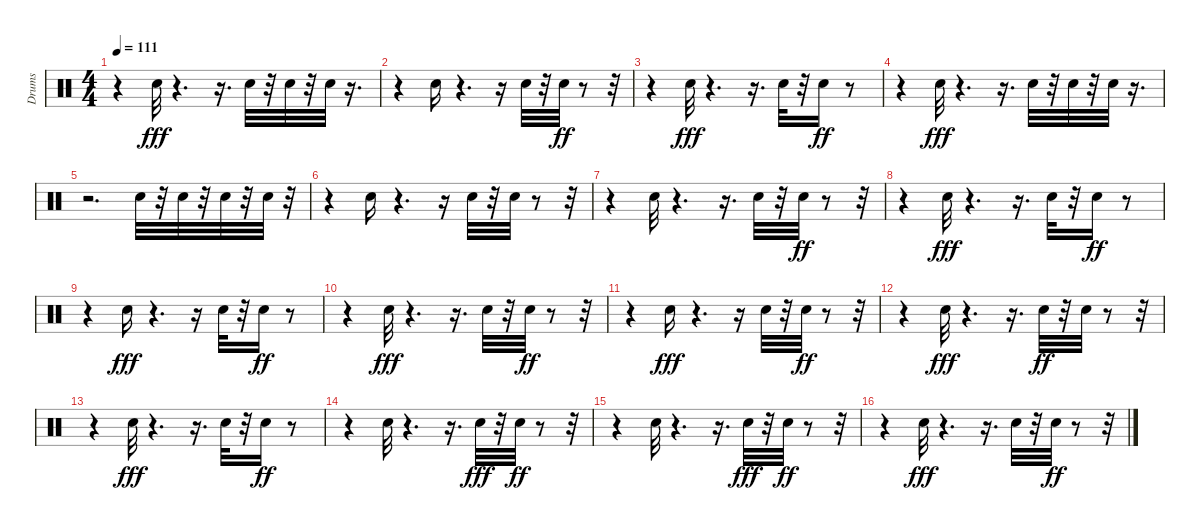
\track ("Drums" "Drums") {instrument percussion}
\staff {score}
\articulation defaults
\ts (4 4)
\tempo 111
\clef neutral
\ks c
r.4{dy ff} "Electric Snare (hit)".32{dy fff} r.4{d} r.16{d} "Electric Snare (hit)".32 r.32 "Electric Snare (hit)".32 r.32 "Electric Snare (hit)".32 r.16{d} |
r.4 "Electric Snare (hit)".16 r.4{d} r.16 "Electric Snare (hit)".32 r.32 "Electric Snare (hit)".32{dy ff} r.8 r.32 |
r.4 "Electric Snare (hit)".32{dy fff} r.4{d} r.16{d} "Electric Snare (hit)".32 r.32 "Electric Snare (hit)".16{dy ff} r.8 |
r.4 "Electric Snare (hit)".32{dy fff} r.4{d} r.16{d} "Electric Snare (hit)".32 r.32 "Electric Snare (hit)".32 r.32 "Electric Snare (hit)".32 r.16{d} |
r.2{d} "Electric Snare (hit)".32 r.32 "Electric Snare (hit)".32 r.32 "Electric Snare (hit)".32 r.32 "Electric Snare (hit)".32 r.32 |
r.4 "Electric Snare (hit)".16 r.4{d} r.16 "Electric Snare (hit)".32 r.32 "Electric Snare (hit)".32 r.8 r.32 |
r.4 "Electric Snare (hit)".32 r.4{d} r.16{d} "Electric Snare (hit)".32 r.32 "Electric Snare (hit)".32{dy ff} r.8 r.32 |
r.4 "Electric Snare (hit)".32{dy fff} r.4{d} r.16{d} "Electric Snare (hit)".32 r.32 "Electric Snare (hit)".16{dy ff} r.8 |
r.4 "Electric Snare (hit)".16{dy fff} r.4{d} r.16 "Electric Snare (hit)".32 r.32 "Electric Snare (hit)".16{dy ff} r.8 |
r.4 "Electric Snare (hit)".32{dy fff} r.4{d} r.16{d} "Electric Snare (hit)".32 r.32 "Electric Snare (hit)".32{dy ff} r.8 r.32 |
r.4 "Electric Snare (hit)".16{dy fff} r.4{d} r.16 "Electric Snare (hit)".32 r.32 "Electric Snare (hit)".32{dy ff} r.8 r.32 |
r.4 "Electric Snare (hit)".32{dy fff} r.4{d} r.16{d} "Electric Snare (hit)".32{dy ff} r.32 "Electric Snare (hit)".32 r.8 r.32 |
r.4 "Electric Snare (hit)".32{dy fff} r.4{d} r.16{d} "Electric Snare (hit)".32 r.32 "Electric Snare (hit)".16{dy ff} r.8 |
r.4 "Electric Snare (hit)".32 r.4{d} r.16{d} "Electric Snare (hit)".32{dy fff} r.32 "Electric Snare (hit)".32{dy ff} r.8 r.32 |
r.4 "Electric Snare (hit)".32 r.4{d} r.16{d} "Electric Snare (hit)".32{dy fff} r.32 "Electric Snare (hit)".32{dy ff} r.8 r.32 |
r.4 "Electric Snare (hit)".32{dy fff} r.4{d} r.16{d} "Electric Snare (hit)".32 r.32 "Electric Snare (hit)".32{dy ff} r.8 r.32
